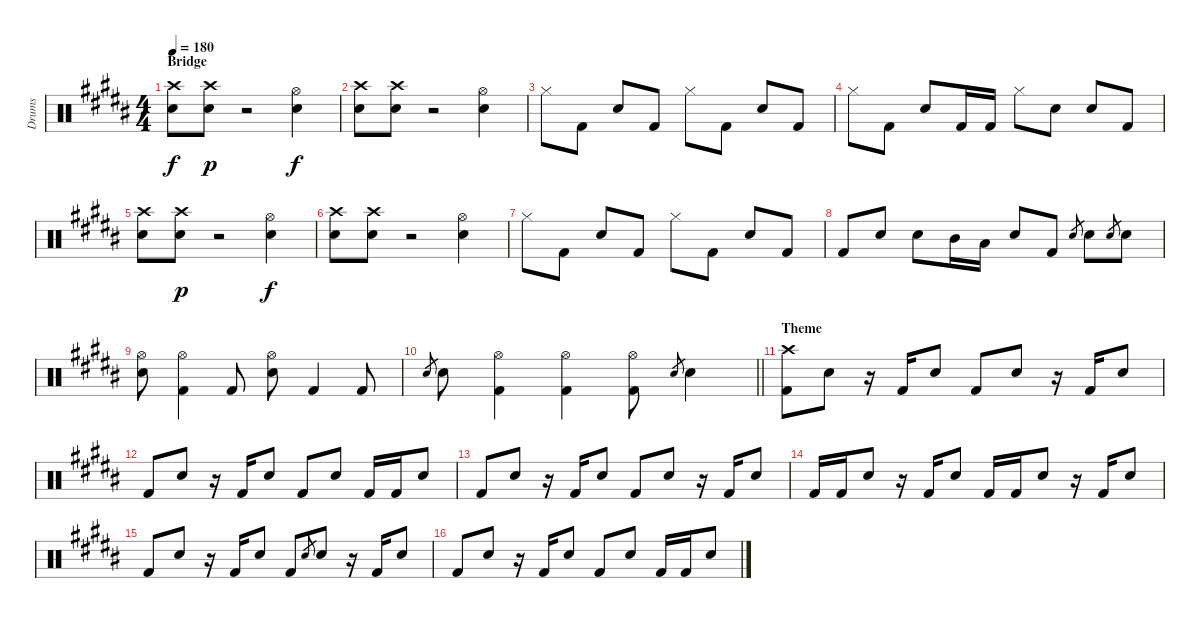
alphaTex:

\track ("Drums" "Drums") {instrument percussion}
\staff {score}
\articulation defaults
\ts (4 4)
\section ("" "Bridge")
\tempo 180
\clef neutral
\ks g#minor
("Crash high (hit)" "Snare (hit) 2").8{dy f} ("Crash high (hit)" "Snare (hit) 2").8{dy p} r.2 ("Hi-Hat (open)" "Snare (hit) 2").4{dy f} |
("Crash high (hit)" "Snare (hit) 2").8 ("Crash high (hit)" "Snare (hit) 2").8 r.2 ("Hi-Hat (open)" "Snare (hit) 2").4 |
"Hi-Hat (closed)".8 "Kick (hit) 2".8 "Snare (hit) 2".8 "Kick (hit) 2".8 "Hi-Hat (closed)".8 "Kick (hit) 2".8 "Snare (hit) 2".8 "Kick (hit) 2".8 |
"Hi-Hat (closed)".8 "Kick (hit) 2".8 "Snare (hit) 2".8 "Kick (hit) 2".16 "Kick (hit) 2".16 "Hi-Hat (closed)".8 "Snare (hit) 2".8 "Snare (hit) 2".8 "Kick (hit) 2".8 |
("Crash high (hit)" "Snare (hit) 2").8 ("Crash high (hit)" "Snare (hit) 2").8{dy p} r.2 ("Hi-Hat (open)" "Snare (hit) 2").4{dy f} |
("Crash high (hit)" "Snare (hit) 2").8 ("Crash high (hit)" "Snare (hit) 2").8 r.2 ("Hi-Hat (open)" "Snare (hit) 2").4 |
"Hi-Hat (closed)".8 "Kick (hit) 2".8 "Snare (hit) 2".8 "Kick (hit) 2".8 "Hi-Hat (closed)".8 "Kick (hit) 2".8 "Snare (hit) 2".8 "Kick (hit) 2".8 |
"Kick (hit) 2".8 "Snare (hit) 2".8 "Snare (hit) 2".8 "Mid Tom (hit)".16 "Low Tom (hit)".16 "Snare (hit) 2".8 "Kick (hit) 2".8 "Snare (hit) 2".8{gr} "Snare (hit) 2".8 "Snare (hit) 2".8{gr} "Snare (hit) 2".8 |
("Snare (hit) 2" "Hi-Hat (open)").8 ("Kick (hit) 2" "Hi-Hat (open)").4 "Kick (hit) 2".8 ("Snare (hit) 2" "Hi-Hat (open)").8 "Kick (hit) 2".4 "Kick (hit) 2".8 |
\barLineRight lightlight "Snare (hit) 2".8{gr} "Snare (hit) 2".8
("Kick (hit) 2" "Hi-Hat (open)").4 ("Kick (hit) 2" "Hi-Hat (open)").4 ("Kick (hit) 2" "Hi-Hat (open)").8 "Snare (hit) 2".8{gr} "Snare (hit) 2".4 |
\section ("" "Theme")
("Kick (hit) 2" "Crash high (hit)").8 "Snare (hit) 2".8 r.16 "Kick (hit) 2".16 "Snare (hit) 2".8 "Kick (hit) 2".8 "Snare (hit) 2".8 r.16 "Kick (hit) 2".16 "Snare (hit) 2".8 |
"Kick (hit) 2".8 "Snare (hit) 2".8 r.16 "Kick (hit) 2".16 "Snare (hit) 2".8 "Kick (hit) 2".8 "Snare (hit) 2".8 "Kick (hit) 2".16 "Kick (hit) 2".16 "Snare (hit) 2".8 |
"Kick (hit) 2".8 "Snare (hit) 2".8 r.16 "Kick (hit) 2".16 "Snare (hit) 2".8 "Kick (hit) 2".8 "Snare (hit) 2".8 r.16 "Kick (hit) 2".16 "Snare (hit) 2".8 |
"Kick (hit) 2".16 "Kick (hit) 2".16 "Snare (hit) 2".8 r.16 "Kick (hit) 2".16 "Snare (hit) 2".8 "Kick (hit) 2".16 "Kick (hit) 2".16 "Snare (hit) 2".8 r.16 "Kick (hit) 2".16 "Snare (hit) 2".8 |
"Kick (hit) 2".8 "Snare (hit) 2".8 r.16 "Kick (hit) 2".16 "Snare (hit) 2".8 "Kick (hit) 2".8 "Snare (hit) 2".8{gr} "Snare (hit) 2".8 r.16 "Kick (hit) 2".16 "Snare (hit) 2".8 |
"Kick (hit) 2".8 "Snare (hit) 2".8 r.16 "Kick (hit) 2".16 "Snare (hit) 2".8 "Kick (hit) 2".8 "Snare (hit) 2".8 "Kick (hit) 2".16 "Kick (hit) 2".16 "Snare (hit) 2".8
